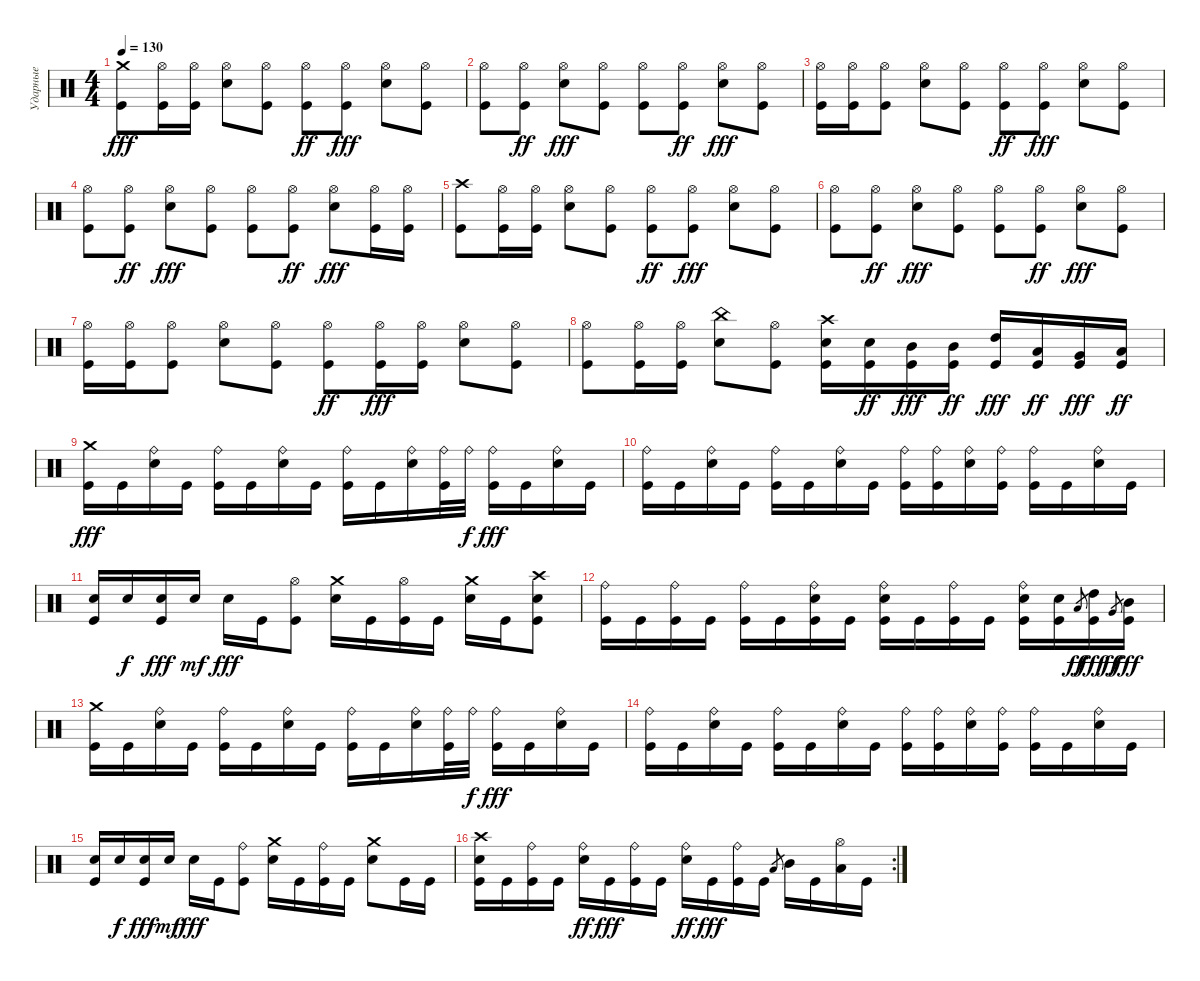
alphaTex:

\track ("Ударные" "Ударные") {instrument percussion}
\staff {score}
\articulation defaults
\ts (4 4)
\tempo 130
\clef neutral
\ks c
("Crash medium (hit)" "Kick (hit)").8{dy fff} ("Hi-Hat (open)" "Kick (hit)").16 ("Hi-Hat (open)" "Kick (hit)").16 ("Hi-Hat (open)" "Electric Snare (hit)").8 ("Hi-Hat (open)" "Kick (hit)").8 ("Hi-Hat (open)" "Kick (hit)").8{dy ff} ("Hi-Hat (open)" "Kick (hit)").8{dy fff} ("Hi-Hat (open)" "Electric Snare (hit)").8 ("Hi-Hat (open)" "Kick (hit)").8 |
("Hi-Hat (open)" "Kick (hit)").8 ("Hi-Hat (open)" "Kick (hit)").8{dy ff} ("Hi-Hat (open)" "Electric Snare (hit)").8{dy fff} ("Hi-Hat (open)" "Kick (hit)").8 ("Hi-Hat (open)" "Kick (hit)").8 ("Hi-Hat (open)" "Kick (hit)").8{dy ff} ("Hi-Hat (open)" "Electric Snare (hit)").8{dy fff} ("Hi-Hat (open)" "Kick (hit)").8 |
("Hi-Hat (open)" "Kick (hit)").16 ("Hi-Hat (open)" "Kick (hit)").16 ("Hi-Hat (open)" "Kick (hit)").8 ("Hi-Hat (open)" "Electric Snare (hit)").8 ("Hi-Hat (open)" "Kick (hit)").8 ("Hi-Hat (open)" "Kick (hit)").8{dy ff} ("Hi-Hat (open)" "Kick (hit)").8{dy fff} ("Hi-Hat (open)" "Electric Snare (hit)").8 ("Hi-Hat (open)" "Kick (hit)").8 |
("Hi-Hat (open)" "Kick (hit)").8 ("Hi-Hat (open)" "Kick (hit)").8{dy ff} ("Hi-Hat (open)" "Electric Snare (hit)").8{dy fff} ("Hi-Hat (open)" "Kick (hit)").8 ("Hi-Hat (open)" "Kick (hit)").8 ("Hi-Hat (open)" "Kick (hit)").8{dy ff} ("Hi-Hat (open)" "Electric Snare (hit)").8{dy fff} ("Hi-Hat (open)" "Kick (hit)").16 ("Hi-Hat (open)" "Kick (hit)").16 |
("Crash high (hit)" "Kick (hit)").8 ("Hi-Hat (open)" "Kick (hit)").16 ("Hi-Hat (open)" "Kick (hit)").16 ("Hi-Hat (open)" "Electric Snare (hit)").8 ("Hi-Hat (open)" "Kick (hit)").8 ("Hi-Hat (open)" "Kick (hit)").8{dy ff} ("Hi-Hat (open)" "Kick (hit)").8{dy fff} ("Hi-Hat (open)" "Electric Snare (hit)").8 ("Hi-Hat (open)" "Kick (hit)").8 |
("Hi-Hat (open)" "Kick (hit)").8 ("Hi-Hat (open)" "Kick (hit)").8{dy ff} ("Hi-Hat (open)" "Electric Snare (hit)").8{dy fff} ("Hi-Hat (open)" "Kick (hit)").8 ("Hi-Hat (open)" "Kick (hit)").8 ("Hi-Hat (open)" "Kick (hit)").8{dy ff} ("Hi-Hat (open)" "Electric Snare (hit)").8{dy fff} ("Hi-Hat (open)" "Kick (hit)").8 |
("Hi-Hat (open)" "Kick (hit)").16 ("Hi-Hat (open)" "Kick (hit)").16 ("Hi-Hat (open)" "Kick (hit)").8 ("Hi-Hat (open)" "Electric Snare (hit)").8 ("Hi-Hat (open)" "Kick (hit)").8 ("Hi-Hat (open)" "Kick (hit)").8{dy ff} ("Hi-Hat (open)" "Kick (hit)").16{dy fff} ("Hi-Hat (open)" "Kick (hit)").16 ("Hi-Hat (open)" "Electric Snare (hit)").8 ("Hi-Hat (open)" "Kick (hit)").8 |
("Hi-Hat (open)" "Kick (hit)").8 ("Hi-Hat (open)" "Kick (hit)").16 ("Hi-Hat (open)" "Kick (hit)").16 ("China (hit)" "Electric Snare (hit)").8 ("Hi-Hat (open)" "Kick (hit)").8 ("Crash high (hit)" "Electric Snare (hit)" "Kick (hit)").16 ("Electric Snare (hit)" "Kick (hit)").16{dy ff} ("Mid Tom (hit)" "Kick (hit)").16{dy fff} ("Mid Tom (hit)" "Kick (hit)").16{dy ff} ("High Tom (hit)" "Kick (hit)").16{dy fff} ("Low Tom (hit)" "Kick (hit)").16{dy ff} ("Very Low Tom (hit)" "Kick (hit)").16{dy fff} ("Low Floor Tom (hit)" "Kick (hit)").16{dy ff} |
("Crash medium (hit)" "Kick (hit)").16{dy fff} "Kick (hit)".16 ("Ride (bell)" "Electric Snare (hit)").16 "Kick (hit)".16 ("Ride (bell)" "Kick (hit)").16 "Kick (hit)".16 ("Ride (bell)" "Electric Snare (hit)").16 "Kick (hit)".16 ("Ride (bell)" "Kick (hit)").16 "Kick (hit)".16 ("Ride (bell)" "Electric Snare (hit)").16 ("Ride (bell)" "Kick (hit)").32 "Ride (bell)".32{dy f} ("Ride (bell)" "Kick (hit)").16{dy fff} "Kick (hit)".16 ("Ride (bell)" "Electric Snare (hit)").16 "Kick (hit)".16 |
("Ride (bell)" "Kick (hit)").16 "Kick (hit)".16 ("Ride (bell)" "Electric Snare (hit)").16 "Kick (hit)".16 ("Ride (bell)" "Kick (hit)").16 "Kick (hit)".16 ("Ride (bell)" "Electric Snare (hit)").16 "Kick (hit)".16 ("Ride (bell)" "Kick (hit)").16 ("Ride (bell)" "Kick (hit)").16 ("Ride (bell)" "Electric Snare (hit)").16 ("Ride (bell)" "Kick (hit)").16 ("Ride (bell)" "Kick (hit)").16 "Kick (hit)".16 ("Ride (bell)" "Electric Snare (hit)").16 "Kick (hit)".16 |
("Electric Snare (hit)" "Kick (hit)").16 "Electric Snare (hit)".16{dy f} ("Electric Snare (hit)" "Kick (hit)").16{dy fff} "Electric Snare (hit)".16{dy mf} "Electric Snare (hit)".16{dy fff} "Kick (hit)".16 ("Hi-Hat (open)" "Kick (hit)").8 ("Crash medium (hit)" "Electric Snare (hit)").16 "Kick (hit)".16 ("Hi-Hat (open)" "Kick (hit)").16 "Kick (hit)".16 ("Crash medium (hit)" "Electric Snare (hit)").16 "Kick (hit)".16 ("Crash high (hit)" "Electric Snare (hit)" "Kick (hit)").8 |
("Ride (bell)" "Kick (hit)").16 "Kick (hit)".16 ("Ride (bell)" "Kick (hit)").16 "Kick (hit)".16 ("Ride (bell)" "Kick (hit)").16 "Kick (hit)".16 ("Ride (bell)" "Electric Snare (hit)" "Kick (hit)").16 "Kick (hit)".16 ("Ride (bell)" "Electric Snare (hit)" "Kick (hit)").16 "Kick (hit)".16 ("Ride (bell)" "Kick (hit)").16 "Kick (hit)".16 ("Ride (bell)" "Electric Snare (hit)" "Kick (hit)").16 ("Electric Snare (hit)" "Kick (hit)").16 "Low Tom (hit)".8{gr dy ff} ("High Tom (hit)" "Kick (hit)").16{dy fff} "Very Low Tom (hit)".8{gr dy ff} ("Mid Tom (hit)" "Kick (hit)").16{dy fff} |
("Crash medium (hit)" "Kick (hit)").16 "Kick (hit)".16 ("Ride (bell)" "Electric Snare (hit)").16 "Kick (hit)".16 ("Ride (bell)" "Kick (hit)").16 "Kick (hit)".16 ("Ride (bell)" "Electric Snare (hit)").16 "Kick (hit)".16 ("Ride (bell)" "Kick (hit)").16 "Kick (hit)".16 ("Ride (bell)" "Electric Snare (hit)").16 ("Ride (bell)" "Kick (hit)").32 "Ride (bell)".32{dy f} ("Ride (bell)" "Kick (hit)").16{dy fff} "Kick (hit)".16 ("Ride (bell)" "Electric Snare (hit)").16 "Kick (hit)".16 |
("Ride (bell)" "Kick (hit)").16 "Kick (hit)".16 ("Ride (bell)" "Electric Snare (hit)").16 "Kick (hit)".16 ("Ride (bell)" "Kick (hit)").16 "Kick (hit)".16 ("Ride (bell)" "Electric Snare (hit)").16 "Kick (hit)".16 ("Ride (bell)" "Kick (hit)").16 ("Ride (bell)" "Kick (hit)").16 ("Ride (bell)" "Electric Snare (hit)").16 ("Ride (bell)" "Kick (hit)").16 ("Ride (bell)" "Kick (hit)").16 "Kick (hit)".16 ("Ride (bell)" "Electric Snare (hit)").16 "Kick (hit)".16 |
("Electric Snare (hit)" "Kick (hit)").16 "Electric Snare (hit)".16{dy f} ("Electric Snare (hit)" "Kick (hit)").16{dy fff} "Electric Snare (hit)".16{dy mf} "Electric Snare (hit)".16{dy fff} "Kick (hit)".16 ("Ride (bell)" "Kick (hit)").8 ("Crash medium (hit)" "Electric Snare (hit)").16 "Kick (hit)".16 ("Ride (bell)" "Kick (hit)").16 "Kick (hit)".16 ("Crash medium (hit)" "Electric Snare (hit)").8 "Kick (hit)".16 "Kick (hit)".16 |
\rc 2
("Crash high (hit)" "Electric Snare (hit)" "Kick (hit)").16 "Kick (hit)".16 ("Ride (bell)" "Kick (hit)").16 "Kick (hit)".16 ("Ride (bell)" "Electric Snare (hit)").16{dy ff} "Kick (hit)".16{dy fff} ("Ride (bell)" "Kick (hit)").16 "Kick (hit)".16 ("Ride (bell)" "Electric Snare (hit)").16{dy ff} "Kick (hit)".16{dy fff} ("Ride (bell)" "Kick (hit)").16 "Kick (hit)".16 "Low Tom (hit)".8{gr} "Mid Tom (hit)".16 "Kick (hit)".16 ("Low Tom (hit)" "Hi-Hat (open)").16 "Kick (hit)".16
